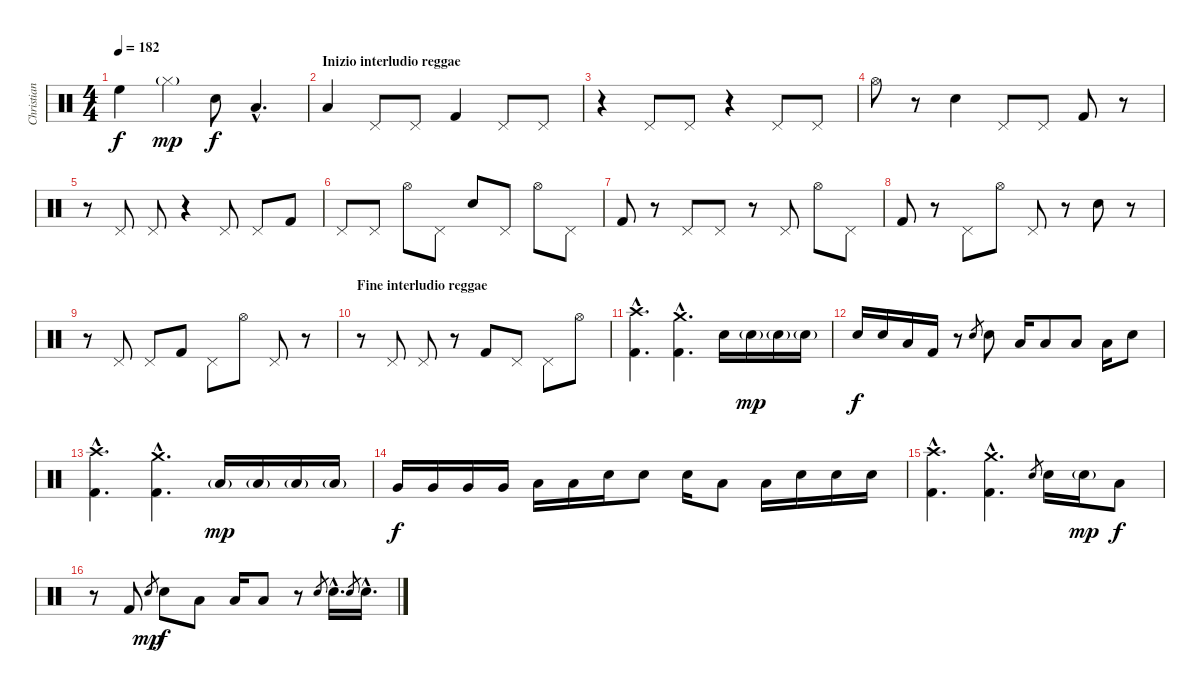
\track ("Christian Meyer" "Christian ") {instrument percussion}
\staff {score}
\articulation defaults
\ts (4 4)
\tempo 182
\clef neutral
\ks c "High Floor Tom (hit)".4{dy f} "Hi-Hat (closed)"{g}.4{dy mp} "Electric Snare (hit)".8{dy f} "Low Floor Tom (hit)"{hac}.4{d}
|
\section ("" "Inizio interludio reggae")
"Low Tom (hit)".4{volume 13} "Pedal Hi-Hat (hit)".8 "Pedal Hi-Hat (hit)".8 "Kick (hit) 2".4 "Pedal Hi-Hat (hit)".8 "Pedal Hi-Hat (hit)".8 |
r.4 "Pedal Hi-Hat (hit)".8 "Pedal Hi-Hat (hit)".8 r.4 "Pedal Hi-Hat (hit)".8 "Pedal Hi-Hat (hit)".8 |
"Hi-Hat (open)".8 r.8 "Electric Snare (hit)".4 "Pedal Hi-Hat (hit)".8 "Pedal Hi-Hat (hit)".8 "Kick (hit) 2".8 r.8 |
r.8 "Pedal Hi-Hat (hit)".8 "Pedal Hi-Hat (hit)".8 r.4 "Pedal Hi-Hat (hit)".8 "Pedal Hi-Hat (hit)".8 "Kick (hit) 2".8 |
"Pedal Hi-Hat (hit)".8 "Pedal Hi-Hat (hit)".8 "Hi-Hat (open)".8 "Pedal Hi-Hat (hit)".8 "Electric Snare (hit)".8 "Pedal Hi-Hat (hit)".8 "Hi-Hat (open)".8 "Pedal Hi-Hat (hit)".8 |
"Kick (hit) 2".8 r.8 "Pedal Hi-Hat (hit)".8 "Pedal Hi-Hat (hit)".8 r.8 "Pedal Hi-Hat (hit)".8 "Hi-Hat (open)".8 "Pedal Hi-Hat (hit)".8 |
"Kick (hit) 2".8 r.8 "Pedal Hi-Hat (hit)".8 "Hi-Hat (open)".8 "Pedal Hi-Hat (hit)".8 r.8 "Electric Snare (hit)".8 r.8 |
r.8 "Pedal Hi-Hat (hit)".8 "Pedal Hi-Hat (hit)".8 "Kick (hit) 2".8 "Pedal Hi-Hat (hit)".8 "Hi-Hat (open)".8 "Pedal Hi-Hat (hit)".8 r.8 |
\section ("" "Fine interludio reggae")
r.8 "Pedal Hi-Hat (hit)".8 "Pedal Hi-Hat (hit)".8 r.8 "Kick (hit) 2".8 "Pedal Hi-Hat (hit)".8 "Pedal Hi-Hat (hit)".8 "Hi-Hat (open)".8 |
("Crash high (hit)"{hac} "Kick (hit) 2"{hac}).4{d volume 14} ("Crash medium (hit)"{hac} "Kick (hit) 2"{hac}).4{d} "Electric Snare (hit)".16 "Electric Snare (hit)"{g}.16{dy mp} "Electric Snare (hit)"{g}.16 "Electric Snare (hit)"{g}.16 |
"Electric Snare (hit)".16{dy f} "Electric Snare (hit)".16 "Low Tom (hit)".16 "Kick (hit) 2".16 r.8 "Electric Snare (hit)".8{gr} "Electric Snare (hit)".8 "Low Tom (hit)".16 "Low Tom (hit)".8 "Low Tom (hit)".8 "Low Tom (hit)".16 "Electric Snare (hit)".8 |
("Crash high (hit)"{hac} "Kick (hit) 2"{hac}).4{d} ("Crash medium (hit)"{hac} "Kick (hit) 2"{hac}).4{d} "Low Floor Tom (hit)"{g}.16{dy mp} "Low Floor Tom (hit)"{g}.16 "Low Floor Tom (hit)"{g}.16 "Low Floor Tom (hit)"{g}.16 |
"Very Low Tom (hit)".16{dy f} "Very Low Tom (hit)".16 "Very Low Tom (hit)".16 "Very Low Tom (hit)".16 "Low Tom (hit)".16 "Low Tom (hit)".16 "Electric Snare (hit)".16 "Electric Snare (hit)".8 "Electric Snare (hit)".16 "Low Tom (hit)".8 "Low Tom (hit)".16 "Electric Snare (hit)".16 "Electric Snare (hit)".16 "Electric Snare (hit)".16 |
("Crash high (hit)"{hac} "Kick (hit) 2"{hac}).4{d} ("Crash medium (hit)"{hac} "Kick (hit) 2"{hac}).4{d} "Electric Snare (hit)".8{gr} "Electric Snare (hit)".16 "Electric Snare (hit)"{g}.16{dy mp} "Low Tom (hit)".8{dy f} |
r.8 "Kick (hit) 2".8 "Electric Snare (hit)".8{gr dy mp} "Electric Snare (hit)".8{dy f} "Low Tom (hit)".8 "Low Tom (hit)".16 "Low Tom (hit)".8 r.8 "Electric Snare (hit)".8{gr} "Electric Snare (hit)"{hac}.16{d} "Electric Snare (hit)".8{gr} "Electric Snare (hit)"{hac}.16{d}
